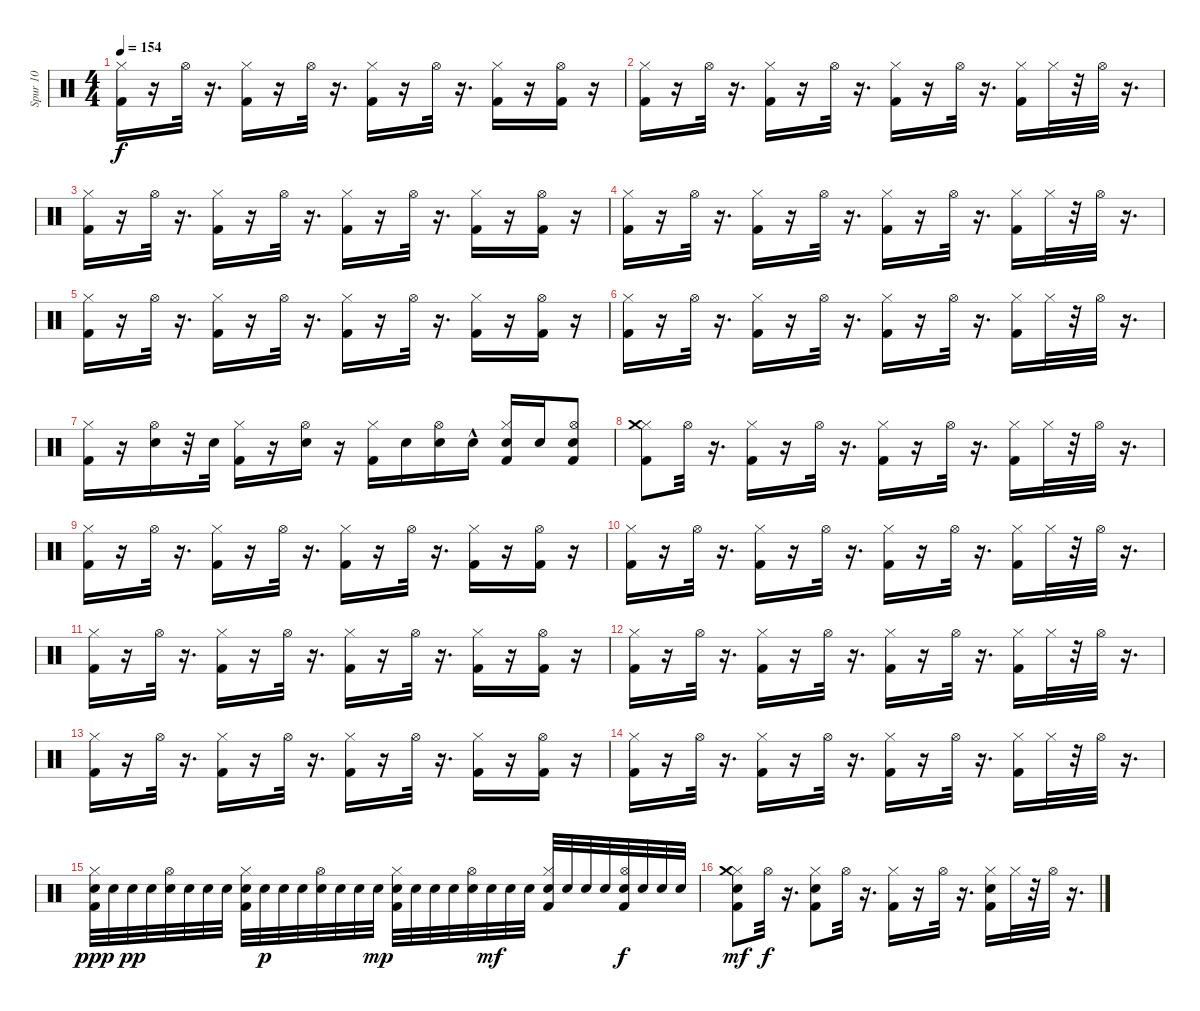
\track ("Spur 10" "Spur 10") {instrument percussion}
\staff {score}
\articulation defaults
\ts (4 4)
\tempo 154
\clef neutral
\ks c
("Kick (hit) 2" "Hi-Hat (closed)").16{dy f} r.16 "Hi-Hat (open)".32 r.16{d} ("Kick (hit) 2" "Hi-Hat (closed)").16 r.16 "Hi-Hat (open)".32 r.16{d} ("Kick (hit) 2" "Hi-Hat (closed)").16 r.16 "Hi-Hat (open)".32 r.16{d} ("Kick (hit) 2" "Hi-Hat (closed)").16 r.16 ("Kick (hit) 2" "Hi-Hat (open)").16 r.16 |
("Kick (hit) 2" "Hi-Hat (closed)").16 r.16 "Hi-Hat (open)".32 r.16{d} ("Kick (hit) 2" "Hi-Hat (closed)").16 r.16 "Hi-Hat (open)".32 r.16{d} ("Kick (hit) 2" "Hi-Hat (closed)").16 r.16 "Hi-Hat (open)".32 r.16{d} ("Kick (hit) 2" "Hi-Hat (closed)").16 "Hi-Hat (closed)".32 r.32 "Hi-Hat (open)".32 r.16{d} |
("Kick (hit) 2" "Hi-Hat (closed)").16 r.16 "Hi-Hat (open)".32 r.16{d} ("Kick (hit) 2" "Hi-Hat (closed)").16 r.16 "Hi-Hat (open)".32 r.16{d} ("Kick (hit) 2" "Hi-Hat (closed)").16 r.16 "Hi-Hat (open)".32 r.16{d} ("Kick (hit) 2" "Hi-Hat (closed)").16 r.16 ("Kick (hit) 2" "Hi-Hat (open)").16 r.16 |
("Kick (hit) 2" "Hi-Hat (closed)").16 r.16 "Hi-Hat (open)".32 r.16{d} ("Kick (hit) 2" "Hi-Hat (closed)").16 r.16 "Hi-Hat (open)".32 r.16{d} ("Kick (hit) 2" "Hi-Hat (closed)").16 r.16 "Hi-Hat (open)".32 r.16{d} ("Kick (hit) 2" "Hi-Hat (closed)").16 "Hi-Hat (closed)".32 r.32 "Hi-Hat (open)".32 r.16{d} |
("Kick (hit) 2" "Hi-Hat (closed)").16 r.16 "Hi-Hat (open)".32 r.16{d} ("Kick (hit) 2" "Hi-Hat (closed)").16 r.16 "Hi-Hat (open)".32 r.16{d} ("Kick (hit) 2" "Hi-Hat (closed)").16 r.16 "Hi-Hat (open)".32 r.16{d} ("Kick (hit) 2" "Hi-Hat (closed)").16 r.16 ("Kick (hit) 2" "Hi-Hat (open)").16 r.16 |
("Kick (hit) 2" "Hi-Hat (closed)").16 r.16 "Hi-Hat (open)".32 r.16{d} ("Kick (hit) 2" "Hi-Hat (closed)").16 r.16 "Hi-Hat (open)".32 r.16{d} ("Kick (hit) 2" "Hi-Hat (closed)").16 r.16 "Hi-Hat (open)".32 r.16{d} ("Kick (hit) 2" "Hi-Hat (closed)").16 "Hi-Hat (closed)".32 r.32 "Hi-Hat (open)".32 r.16{d} |
("Kick (hit) 2" "Hi-Hat (closed)").16 r.16 ("Electric Snare (hit)" "Hi-Hat (open)").16 r.32 "Electric Snare (hit)".32 ("Kick (hit) 2" "Hi-Hat (closed)").16 r.16 ("Electric Snare (hit)" "Hi-Hat (open)").16 r.16 ("Kick (hit) 2" "Hi-Hat (closed)").16 "Snare (hit) 2".16 ("Electric Snare (hit)" "Hi-Hat (open)").16 "Snare (hit) 2"{hac}.16 ("Electric Snare (hit)" "Kick (hit) 2" "Hi-Hat (closed)").16 "Snare (hit) 2".16 ("Electric Snare (hit)" "Kick (hit) 2" "Hi-Hat (open)").8 |
("Kick (hit) 2" "Hi-Hat (closed)" "Crash medium (hit)").8 "Hi-Hat (open)".32 r.16{d} ("Kick (hit) 2" "Hi-Hat (closed)").16 r.16 "Hi-Hat (open)".32 r.16{d} ("Kick (hit) 2" "Hi-Hat (closed)").16 r.16 "Hi-Hat (open)".32 r.16{d} ("Kick (hit) 2" "Hi-Hat (closed)").16 "Hi-Hat (closed)".32 r.32 "Hi-Hat (open)".32 r.16{d} |
("Kick (hit) 2" "Hi-Hat (closed)").16 r.16 "Hi-Hat (open)".32 r.16{d} ("Kick (hit) 2" "Hi-Hat (closed)").16 r.16 "Hi-Hat (open)".32 r.16{d} ("Kick (hit) 2" "Hi-Hat (closed)").16 r.16 "Hi-Hat (open)".32 r.16{d} ("Kick (hit) 2" "Hi-Hat (closed)").16 r.16 ("Kick (hit) 2" "Hi-Hat (open)").16 r.16 |
("Kick (hit) 2" "Hi-Hat (closed)").16 r.16 "Hi-Hat (open)".32 r.16{d} ("Kick (hit) 2" "Hi-Hat (closed)").16 r.16 "Hi-Hat (open)".32 r.16{d} ("Kick (hit) 2" "Hi-Hat (closed)").16 r.16 "Hi-Hat (open)".32 r.16{d} ("Kick (hit) 2" "Hi-Hat (closed)").16 "Hi-Hat (closed)".32 r.32 "Hi-Hat (open)".32 r.16{d} |
("Kick (hit) 2" "Hi-Hat (closed)").16 r.16 "Hi-Hat (open)".32 r.16{d} ("Kick (hit) 2" "Hi-Hat (closed)").16 r.16 "Hi-Hat (open)".32 r.16{d} ("Kick (hit) 2" "Hi-Hat (closed)").16 r.16 "Hi-Hat (open)".32 r.16{d} ("Kick (hit) 2" "Hi-Hat (closed)").16 r.16 ("Kick (hit) 2" "Hi-Hat (open)").16 r.16 |
("Kick (hit) 2" "Hi-Hat (closed)").16 r.16 "Hi-Hat (open)".32 r.16{d} ("Kick (hit) 2" "Hi-Hat (closed)").16 r.16 "Hi-Hat (open)".32 r.16{d} ("Kick (hit) 2" "Hi-Hat (closed)").16 r.16 "Hi-Hat (open)".32 r.16{d} ("Kick (hit) 2" "Hi-Hat (closed)").16 "Hi-Hat (closed)".32 r.32 "Hi-Hat (open)".32 r.16{d} |
("Kick (hit) 2" "Hi-Hat (closed)").16 r.16 "Hi-Hat (open)".32 r.16{d} ("Kick (hit) 2" "Hi-Hat (closed)").16 r.16 "Hi-Hat (open)".32 r.16{d} ("Kick (hit) 2" "Hi-Hat (closed)").16 r.16 "Hi-Hat (open)".32 r.16{d} ("Kick (hit) 2" "Hi-Hat (closed)").16 r.16 ("Kick (hit) 2" "Hi-Hat (open)").16 r.16 |
("Kick (hit) 2" "Hi-Hat (closed)").16 r.16 "Hi-Hat (open)".32 r.16{d} ("Kick (hit) 2" "Hi-Hat (closed)").16 r.16 "Hi-Hat (open)".32 r.16{d} ("Kick (hit) 2" "Hi-Hat (closed)").16 r.16 "Hi-Hat (open)".32 r.16{d} ("Kick (hit) 2" "Hi-Hat (closed)").16 "Hi-Hat (closed)".32 r.32 "Hi-Hat (open)".32 r.16{d} |
("Kick (hit) 2" "Electric Snare (hit)" "Hi-Hat (closed)").32{dy ppp} "Electric Snare (hit)".32 "Electric Snare (hit)".32{dy pp} "Electric Snare (hit)".32 ("Electric Snare (hit)" "Hi-Hat (open)").32 "Electric Snare (hit)".32 "Electric Snare (hit)".32 "Electric Snare (hit)".32 ("Kick (hit) 2" "Electric Snare (hit)" "Hi-Hat (closed)").32 "Electric Snare (hit)".32{dy p} "Electric Snare (hit)".32 "Electric Snare (hit)".32 ("Electric Snare (hit)" "Hi-Hat (open)").32 "Electric Snare (hit)".32 "Electric Snare (hit)".32 "Electric Snare (hit)".32{dy mp} ("Kick (hit) 2" "Electric Snare (hit)" "Hi-Hat (closed)").32 "Electric Snare (hit)".32 "Electric Snare (hit)".32 "Electric Snare (hit)".32 ("Electric Snare (hit)" "Hi-Hat (open)").32 "Electric Snare (hit)".32{dy mf} "Electric Snare (hit)".32 "Electric Snare (hit)".32 ("Kick (hit) 2" "Electric Snare (hit)" "Hi-Hat (closed)").32 "Electric Snare (hit)".32 "Electric Snare (hit)".32 "Electric Snare (hit)".32 ("Kick (hit) 2" "Electric Snare (hit)" "Hi-Hat (open)").32{dy f} "Electric Snare (hit)".32 "Electric Snare (hit)".32 "Electric Snare (hit)".32 |
("Kick (hit) 2" "Snare (hit) 2" "Hi-Hat (closed)" "Crash medium (hit)").8{dy mf} "Hi-Hat (open)".32{dy f} r.16{d} ("Kick (hit) 2" "Snare (hit) 2" "Hi-Hat (closed)").8 "Hi-Hat (open)".32 r.16{d} ("Kick (hit) 2" "Hi-Hat (closed)").16 r.16 "Hi-Hat (open)".32 r.16{d} ("Kick (hit) 2" "Snare (hit) 2" "Hi-Hat (closed)").16 "Hi-Hat (closed)".32 r.32 "Hi-Hat (open)".32 r.16{d}
